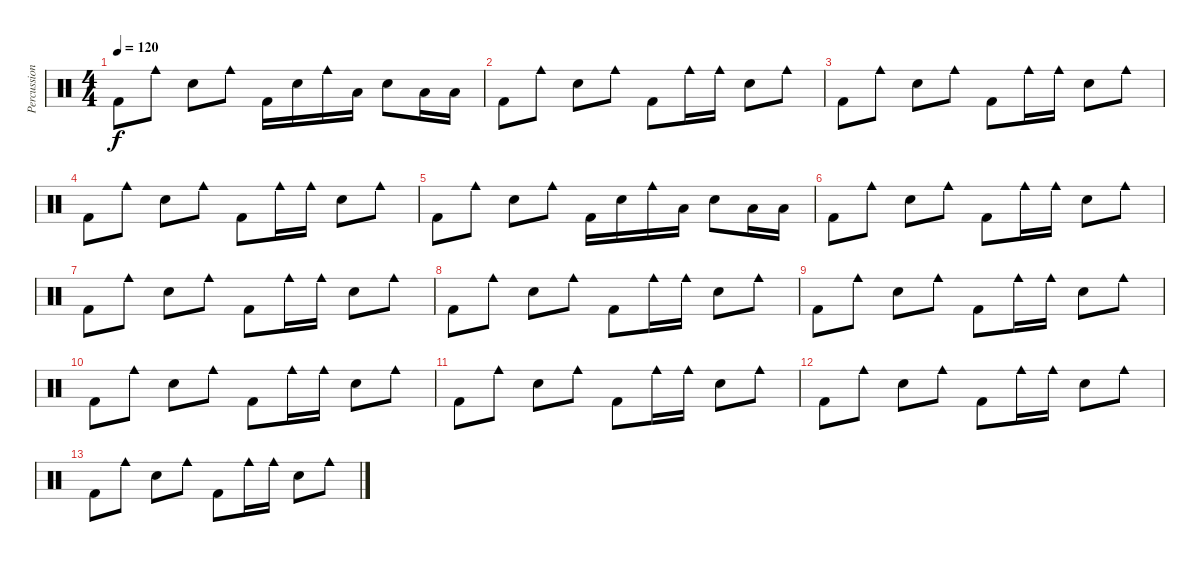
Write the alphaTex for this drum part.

\track ("Percussion" "Percussion") {instrument percussion}
\staff {score}
\articulation defaults
\ts (4 4)
\tempo 120
\clef neutral
\ks c "Kick (hit) 2".8{dy f} "Cowbell medium (hit)".8 "Electric Snare (hit)".8 "Cowbell medium (hit)".8 "Kick (hit) 2".16 "Electric Snare (hit)".16 "Cowbell medium (hit)".16 "Low Floor Tom (hit)".16 "Electric Snare (hit)".8 "Low Floor Tom (hit)".16 "Low Floor Tom (hit)".16
|
"Kick (hit) 2".8 "Cowbell medium (hit)".8 "Electric Snare (hit)".8 "Cowbell medium (hit)".8 "Kick (hit) 2".8 "Cowbell medium (hit)".16 "Cowbell medium (hit)".16 "Electric Snare (hit)".8 "Cowbell medium (hit)".8 |
"Kick (hit) 2".8 "Cowbell medium (hit)".8 "Electric Snare (hit)".8 "Cowbell medium (hit)".8 "Kick (hit) 2".8 "Cowbell medium (hit)".16 "Cowbell medium (hit)".16 "Electric Snare (hit)".8 "Cowbell medium (hit)".8 |
"Kick (hit) 2".8 "Cowbell medium (hit)".8 "Electric Snare (hit)".8 "Cowbell medium (hit)".8 "Kick (hit) 2".8 "Cowbell medium (hit)".16 "Cowbell medium (hit)".16 "Electric Snare (hit)".8 "Cowbell medium (hit)".8 |
"Kick (hit) 2".8 "Cowbell medium (hit)".8 "Electric Snare (hit)".8 "Cowbell medium (hit)".8 "Kick (hit) 2".16 "Electric Snare (hit)".16 "Cowbell medium (hit)".16 "Low Floor Tom (hit)".16 "Electric Snare (hit)".8 "Low Floor Tom (hit)".16 "Low Floor Tom (hit)".16 |
"Kick (hit) 2".8 "Cowbell medium (hit)".8 "Electric Snare (hit)".8 "Cowbell medium (hit)".8 "Kick (hit) 2".8 "Cowbell medium (hit)".16 "Cowbell medium (hit)".16 "Electric Snare (hit)".8 "Cowbell medium (hit)".8 |
"Kick (hit) 2".8 "Cowbell medium (hit)".8 "Electric Snare (hit)".8 "Cowbell medium (hit)".8 "Kick (hit) 2".8 "Cowbell medium (hit)".16 "Cowbell medium (hit)".16 "Electric Snare (hit)".8 "Cowbell medium (hit)".8 |
"Kick (hit) 2".8 "Cowbell medium (hit)".8 "Electric Snare (hit)".8 "Cowbell medium (hit)".8 "Kick (hit) 2".8 "Cowbell medium (hit)".16 "Cowbell medium (hit)".16 "Electric Snare (hit)".8 "Cowbell medium (hit)".8 |
"Kick (hit) 2".8 "Cowbell medium (hit)".8 "Electric Snare (hit)".8 "Cowbell medium (hit)".8 "Kick (hit) 2".8 "Cowbell medium (hit)".16 "Cowbell medium (hit)".16 "Electric Snare (hit)".8 "Cowbell medium (hit)".8 |
"Kick (hit) 2".8 "Cowbell medium (hit)".8 "Electric Snare (hit)".8 "Cowbell medium (hit)".8 "Kick (hit) 2".8 "Cowbell medium (hit)".16 "Cowbell medium (hit)".16 "Electric Snare (hit)".8 "Cowbell medium (hit)".8 |
"Kick (hit) 2".8 "Cowbell medium (hit)".8 "Electric Snare (hit)".8 "Cowbell medium (hit)".8 "Kick (hit) 2".8 "Cowbell medium (hit)".16 "Cowbell medium (hit)".16 "Electric Snare (hit)".8 "Cowbell medium (hit)".8 |
"Kick (hit) 2".8 "Cowbell medium (hit)".8 "Electric Snare (hit)".8 "Cowbell medium (hit)".8 "Kick (hit) 2".8 "Cowbell medium (hit)".16 "Cowbell medium (hit)".16 "Electric Snare (hit)".8 "Cowbell medium (hit)".8 |
"Kick (hit) 2".8 "Cowbell medium (hit)".8 "Electric Snare (hit)".8 "Cowbell medium (hit)".8 "Kick (hit) 2".8 "Cowbell medium (hit)".16 "Cowbell medium (hit)".16 "Electric Snare (hit)".8 "Cowbell medium (hit)".8
